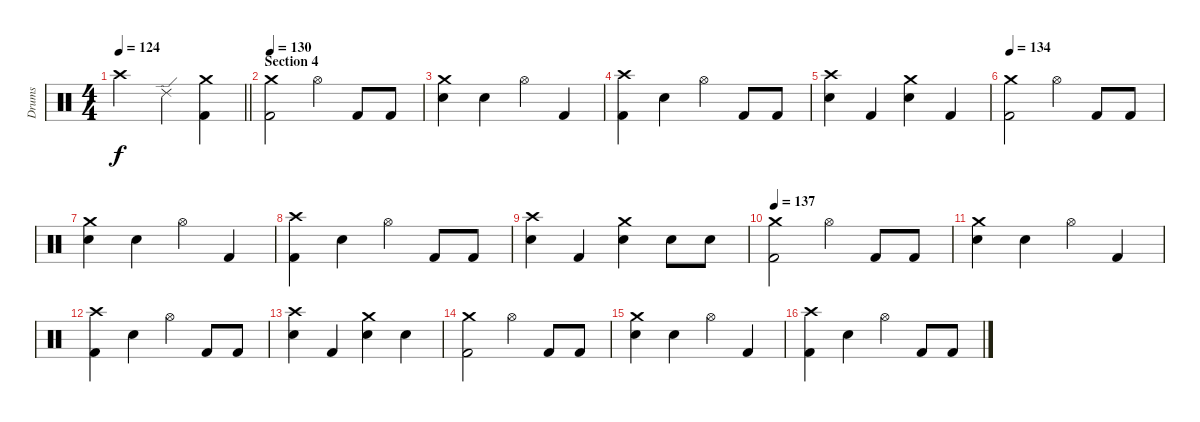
\track ("Drums" "Drums") {instrument percussion}
\staff {score}
\articulation defaults
\ts (4 4)
\tempo 124
\clef neutral
\barLineRight lightlight
\ks c "Crash high (hit)".2{dy f} "Ride (edge) 2".4
("Crash medium (hit)" "Kick (hit) 2").4 |
\section ("" "Section 4")
\tempo 130
("Crash medium (hit)" "Kick (hit) 2").2 "Hi-Hat (open)".4 "Kick (hit) 2".8 "Kick (hit) 2".8 |
("Crash medium (hit)" "Electric Snare (hit)").4 "Electric Snare (hit)".4 "Hi-Hat (open)".4 "Kick (hit) 2".4 |
("Crash high (hit)" "Kick (hit) 2").4 "Electric Snare (hit)".4 "Hi-Hat (open)".4 "Kick (hit) 2".8 "Kick (hit) 2".8 |
("Crash high (hit)" "Electric Snare (hit)").4 "Kick (hit) 2".4 ("Crash medium (hit)" "Electric Snare (hit)").4 "Kick (hit) 2".4 |
\tempo 134
("Crash medium (hit)" "Kick (hit) 2").2 "Hi-Hat (open)".4 "Kick (hit) 2".8 "Kick (hit) 2".8 |
("Crash medium (hit)" "Electric Snare (hit)").4 "Electric Snare (hit)".4 "Hi-Hat (open)".4 "Kick (hit) 2".4 |
("Crash high (hit)" "Kick (hit) 2").4 "Electric Snare (hit)".4 "Hi-Hat (open)".4 "Kick (hit) 2".8 "Kick (hit) 2".8 |
("Crash high (hit)" "Electric Snare (hit)").4 "Kick (hit) 2".4 ("Crash medium (hit)" "Electric Snare (hit)").4 "Electric Snare (hit)".8 "Electric Snare (hit)".8 |
\tempo 137
("Crash medium (hit)" "Kick (hit) 2").2 "Hi-Hat (open)".4 "Kick (hit) 2".8 "Kick (hit) 2".8 |
("Crash medium (hit)" "Electric Snare (hit)").4 "Electric Snare (hit)".4 "Hi-Hat (open)".4 "Kick (hit) 2".4 |
("Crash high (hit)" "Kick (hit) 2").4 "Electric Snare (hit)".4 "Hi-Hat (open)".4 "Kick (hit) 2".8 "Kick (hit) 2".8 |
("Crash high (hit)" "Electric Snare (hit)").4 "Kick (hit) 2".4 ("Crash medium (hit)" "Electric Snare (hit)").4 "Electric Snare (hit)".4 |
("Crash medium (hit)" "Kick (hit) 2").2 "Hi-Hat (open)".4 "Kick (hit) 2".8 "Kick (hit) 2".8 |
("Crash medium (hit)" "Electric Snare (hit)").4 "Electric Snare (hit)".4 "Hi-Hat (open)".4 "Kick (hit) 2".4 |
("Crash high (hit)" "Kick (hit) 2").4 "Electric Snare (hit)".4 "Hi-Hat (open)".4 "Kick (hit) 2".8 "Kick (hit) 2".8
